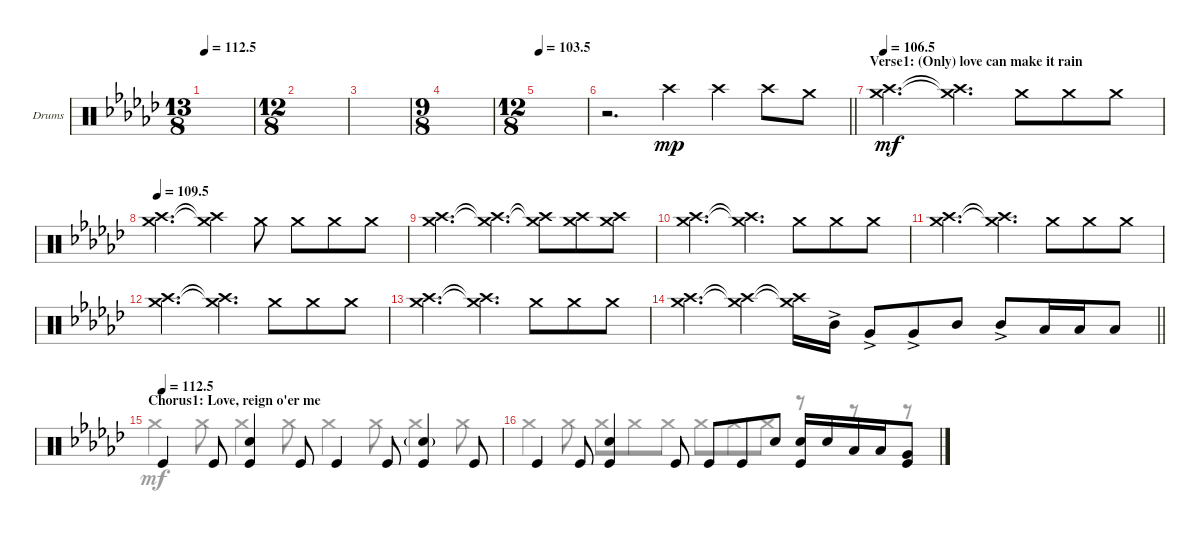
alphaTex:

\bracketExtendMode groupsimilarinstruments
\firstSystemTrackNameOrientation horizontal
\otherSystemsTrackNameOrientation horizontal
\track ("Drumkit" "Drums") {instrument percussion}
\staff {score}
\articulation defaults
\voice
\ts (13 8)
\tempo
112.5
\accidentals auto
\clef neutral
\ottava regular
\simile none
\ks ebminor
|
\ts (12 8)
|
|
\ts (9 8)
|
\ts (12 8)
\tempo (103.5 0.00625)
|
\barLineRight lightlight
r.2{d} "Crash high (hit)".4{dy mp} "Crash high (hit)".4 "Crash high (hit)".8 "Crash medium (hit)".8 |
\section ("" "Verse1: (Only) love can make it rain")
\tempo (106.5 0.00625)
("Crash medium (hit)" "Crash high (hit)").2{d dy mf} ("Crash medium (hit)"{t} "Crash high (hit)"{t}).4{d} "Crash medium (hit)".8 "Crash medium (hit)".8 "Crash medium (hit)".8 |
\tempo (109.5 0.0125)
("Crash medium (hit)" "Crash high (hit)").2{d} ("Crash medium (hit)"{t} "Crash high (hit)"{t}).4 "Crash medium (hit)".8 "Crash medium (hit)".8 "Crash medium (hit)".8 "Crash medium (hit)".8 |
("Crash medium (hit)" "Crash high (hit)").2{d} ("Crash medium (hit)"{t} "Crash high (hit)"{t}).4{d} ("Crash medium (hit)"{t} "Crash high (hit)"{t}).8 ("Crash medium (hit)" "Crash high (hit)").8 ("Crash medium (hit)" "Crash high (hit)").8 |
("Crash medium (hit)" "Crash high (hit)").2{d} ("Crash medium (hit)"{t} "Crash high (hit)"{t}).4{d} "Crash medium (hit)".8 "Crash medium (hit)".8 "Crash medium (hit)".8 |
("Crash medium (hit)" "Crash high (hit)").2{d} ("Crash medium (hit)"{t} "Crash high (hit)"{t}).4{d} "Crash medium (hit)".8 "Crash medium (hit)".8 "Crash medium (hit)".8 |
("Crash medium (hit)" "Crash high (hit)").2{d} ("Crash medium (hit)"{t} "Crash high (hit)"{t}).4{d} "Crash medium (hit)".8 "Crash medium (hit)".8 "Crash medium (hit)".8 |
("Crash medium (hit)" "Crash high (hit)").2{d} ("Crash medium (hit)"{t} "Crash high (hit)"{t}).4{d} "Crash medium (hit)".8 "Crash medium (hit)".8 "Crash medium (hit)".8 |
\barLineRight lightlight
("Crash medium (hit)" "Crash high (hit)").4{d} ("Crash medium (hit)"{t} "Crash high (hit)"{t}).4 ("Crash medium (hit)"{t} "Crash high (hit)"{t}).16 "Mid Tom (hit)"{ac}.16 "Very Low Tom (hit)"{ac}.8 "Very Low Tom (hit)"{ac}.8 "Mid Tom (hit)".8 "Mid Tom (hit)"{ac}.8 "Low Tom (hit)".16 "Low Tom (hit)".16 "Low Tom (hit)".8 |
\section ("" "Chorus1: Love, reign o'er me")
\tempo (112.5 0.0125)
"Kick (hit)".4 "Kick (hit)".8 ("Kick (hit)" "Snare (hit) 2").4 "Kick (hit)".8 "Kick (hit)".4 "Kick (hit)".8 ("Kick (hit)" "Snare (hit) 2"{g}).4 "Kick (hit)".8 |
"Kick (hit)".4 "Kick (hit)".8 ("Kick (hit)" "Snare (hit) 2").4 "Kick (hit)".8 "Kick (hit)".8 "Kick (hit)".8 "Snare (hit) 2".8 ("Snare (hit) 2" "Kick (hit)").16 "Snare (hit) 2".16 "Low Tom (hit)".16 "Low Tom (hit)".16 ("Very Low Tom (hit)" "Kick (hit)").8
\voice
\clef neutral
\ottava regular
\simile none
\ks ebminor
|
|
|
|
|
\barLineRight lightlight
|
|
|
|
|
|
|
|
\barLineRight lightlight
|
"Crash medium (hit)".4 "Crash medium (hit)".8 "Crash medium (hit)".4 "Crash medium (hit)".8 "Crash medium (hit)".4 "Crash medium (hit)".8 "Crash medium (hit)".4 "Crash medium (hit)".8 |
"Crash medium (hit)".4 "Crash medium (hit)".8 "Crash medium (hit)".8 "Crash medium (hit)".8 "Crash medium (hit)".8 "Crash medium (hit)".8 "Crash medium (hit)".8 "Crash medium (hit)".8 r.8 r.8 r.8
